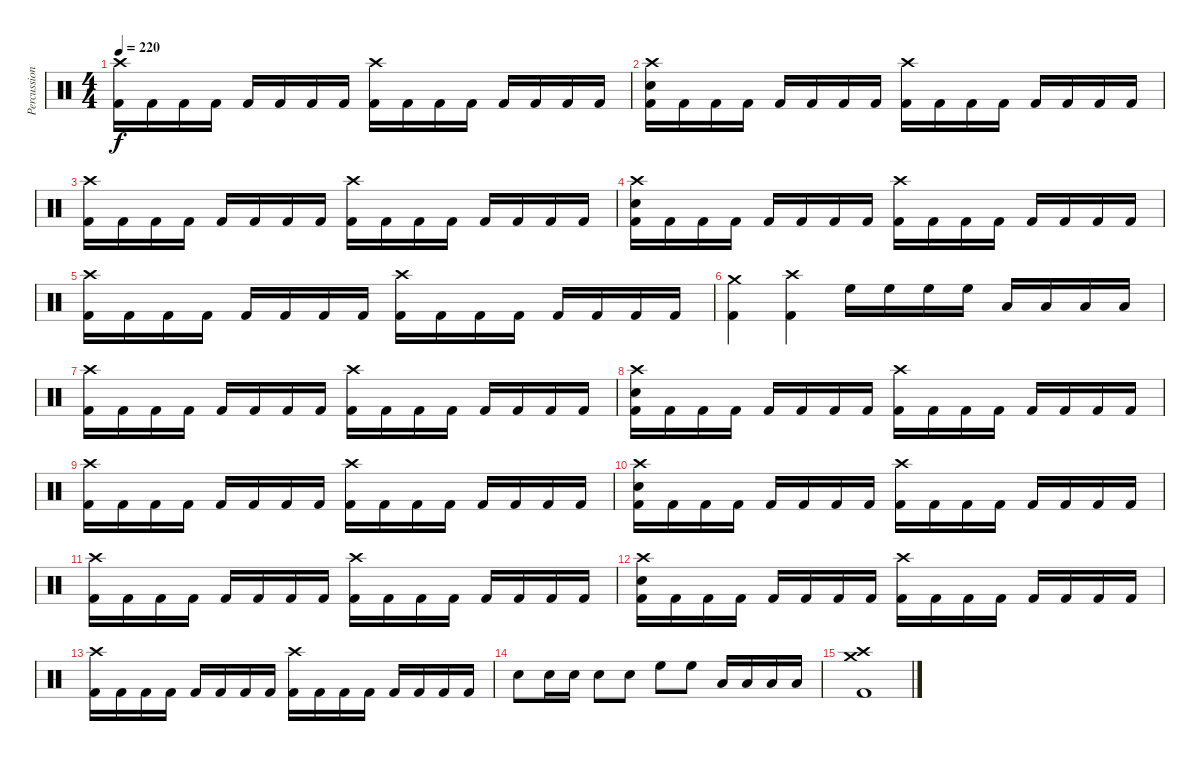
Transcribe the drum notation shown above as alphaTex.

\track ("Percussion" "Percussion") {instrument percussion}
\staff {score}
\articulation defaults
\ts (4 4)
\tempo 220
\clef neutral
\ks c
("Crash high (hit)" "Kick (hit) 2").16{dy f} "Kick (hit) 2".16 "Kick (hit) 2".16 "Kick (hit) 2".16 "Kick (hit) 2".16 "Kick (hit) 2".16 "Kick (hit) 2".16 "Kick (hit) 2".16 ("Crash high (hit)" "Kick (hit) 2").16 "Kick (hit) 2".16 "Kick (hit) 2".16 "Kick (hit) 2".16 "Kick (hit) 2".16 "Kick (hit) 2".16 "Kick (hit) 2".16 "Kick (hit) 2".16 |
("Crash high (hit)" "Snare (hit) 2" "Kick (hit) 2").16 "Kick (hit) 2".16 "Kick (hit) 2".16 "Kick (hit) 2".16 "Kick (hit) 2".16 "Kick (hit) 2".16 "Kick (hit) 2".16 "Kick (hit) 2".16 ("Crash high (hit)" "Kick (hit) 2").16 "Kick (hit) 2".16 "Kick (hit) 2".16 "Kick (hit) 2".16 "Kick (hit) 2".16 "Kick (hit) 2".16 "Kick (hit) 2".16 "Kick (hit) 2".16 |
("Crash high (hit)" "Kick (hit) 2").16 "Kick (hit) 2".16 "Kick (hit) 2".16 "Kick (hit) 2".16 "Kick (hit) 2".16 "Kick (hit) 2".16 "Kick (hit) 2".16 "Kick (hit) 2".16 ("Crash high (hit)" "Kick (hit) 2").16 "Kick (hit) 2".16 "Kick (hit) 2".16 "Kick (hit) 2".16 "Kick (hit) 2".16 "Kick (hit) 2".16 "Kick (hit) 2".16 "Kick (hit) 2".16 |
("Crash high (hit)" "Snare (hit) 2" "Kick (hit) 2").16 "Kick (hit) 2".16 "Kick (hit) 2".16 "Kick (hit) 2".16 "Kick (hit) 2".16 "Kick (hit) 2".16 "Kick (hit) 2".16 "Kick (hit) 2".16 ("Crash high (hit)" "Kick (hit) 2").16 "Kick (hit) 2".16 "Kick (hit) 2".16 "Kick (hit) 2".16 "Kick (hit) 2".16 "Kick (hit) 2".16 "Kick (hit) 2".16 "Kick (hit) 2".16 |
("Crash high (hit)" "Kick (hit) 2").16 "Kick (hit) 2".16 "Kick (hit) 2".16 "Kick (hit) 2".16 "Kick (hit) 2".16 "Kick (hit) 2".16 "Kick (hit) 2".16 "Kick (hit) 2".16 ("Crash high (hit)" "Kick (hit) 2").16 "Kick (hit) 2".16 "Kick (hit) 2".16 "Kick (hit) 2".16 "Kick (hit) 2".16 "Kick (hit) 2".16 "Kick (hit) 2".16 "Kick (hit) 2".16 |
("Crash medium (hit)" "Kick (hit) 2").4 ("Crash high (hit)" "Kick (hit) 2").4 "High Floor Tom (hit)".16 "High Floor Tom (hit)".16 "High Floor Tom (hit)".16 "High Floor Tom (hit)".16 "Low Floor Tom (hit)".16 "Low Floor Tom (hit)".16 "Low Floor Tom (hit)".16 "Low Floor Tom (hit)".16 |
("Crash high (hit)" "Kick (hit) 2").16 "Kick (hit) 2".16 "Kick (hit) 2".16 "Kick (hit) 2".16 "Kick (hit) 2".16 "Kick (hit) 2".16 "Kick (hit) 2".16 "Kick (hit) 2".16 ("Crash high (hit)" "Kick (hit) 2").16 "Kick (hit) 2".16 "Kick (hit) 2".16 "Kick (hit) 2".16 "Kick (hit) 2".16 "Kick (hit) 2".16 "Kick (hit) 2".16 "Kick (hit) 2".16 |
("Crash high (hit)" "Snare (hit) 2" "Kick (hit) 2").16 "Kick (hit) 2".16 "Kick (hit) 2".16 "Kick (hit) 2".16 "Kick (hit) 2".16 "Kick (hit) 2".16 "Kick (hit) 2".16 "Kick (hit) 2".16 ("Crash high (hit)" "Kick (hit) 2").16 "Kick (hit) 2".16 "Kick (hit) 2".16 "Kick (hit) 2".16 "Kick (hit) 2".16 "Kick (hit) 2".16 "Kick (hit) 2".16 "Kick (hit) 2".16 |
("Crash high (hit)" "Kick (hit) 2").16 "Kick (hit) 2".16 "Kick (hit) 2".16 "Kick (hit) 2".16 "Kick (hit) 2".16 "Kick (hit) 2".16 "Kick (hit) 2".16 "Kick (hit) 2".16 ("Crash high (hit)" "Kick (hit) 2").16 "Kick (hit) 2".16 "Kick (hit) 2".16 "Kick (hit) 2".16 "Kick (hit) 2".16 "Kick (hit) 2".16 "Kick (hit) 2".16 "Kick (hit) 2".16 |
("Crash high (hit)" "Snare (hit) 2" "Kick (hit) 2").16 "Kick (hit) 2".16 "Kick (hit) 2".16 "Kick (hit) 2".16 "Kick (hit) 2".16 "Kick (hit) 2".16 "Kick (hit) 2".16 "Kick (hit) 2".16 ("Crash high (hit)" "Kick (hit) 2").16 "Kick (hit) 2".16 "Kick (hit) 2".16 "Kick (hit) 2".16 "Kick (hit) 2".16 "Kick (hit) 2".16 "Kick (hit) 2".16 "Kick (hit) 2".16 |
("Crash high (hit)" "Kick (hit) 2").16 "Kick (hit) 2".16 "Kick (hit) 2".16 "Kick (hit) 2".16 "Kick (hit) 2".16 "Kick (hit) 2".16 "Kick (hit) 2".16 "Kick (hit) 2".16 ("Crash high (hit)" "Kick (hit) 2").16 "Kick (hit) 2".16 "Kick (hit) 2".16 "Kick (hit) 2".16 "Kick (hit) 2".16 "Kick (hit) 2".16 "Kick (hit) 2".16 "Kick (hit) 2".16 |
("Crash high (hit)" "Snare (hit) 2" "Kick (hit) 2").16 "Kick (hit) 2".16 "Kick (hit) 2".16 "Kick (hit) 2".16 "Kick (hit) 2".16 "Kick (hit) 2".16 "Kick (hit) 2".16 "Kick (hit) 2".16 ("Crash high (hit)" "Kick (hit) 2").16 "Kick (hit) 2".16 "Kick (hit) 2".16 "Kick (hit) 2".16 "Kick (hit) 2".16 "Kick (hit) 2".16 "Kick (hit) 2".16 "Kick (hit) 2".16 |
("Crash high (hit)" "Kick (hit) 2").16 "Kick (hit) 2".16 "Kick (hit) 2".16 "Kick (hit) 2".16 "Kick (hit) 2".16 "Kick (hit) 2".16 "Kick (hit) 2".16 "Kick (hit) 2".16 ("Crash high (hit)" "Kick (hit) 2").16 "Kick (hit) 2".16 "Kick (hit) 2".16 "Kick (hit) 2".16 "Kick (hit) 2".16 "Kick (hit) 2".16 "Kick (hit) 2".16 "Kick (hit) 2".16 |
"Snare (hit) 2".8 "Snare (hit) 2".16 "Snare (hit) 2".16 "Snare (hit) 2".8 "Snare (hit) 2".8 "High Floor Tom (hit)".8 "High Floor Tom (hit)".8 "Low Floor Tom (hit)".16 "Low Floor Tom (hit)".16 "Low Floor Tom (hit)".16 "Low Floor Tom (hit)".16 |
("Crash high (hit)" "Crash medium (hit)" "Kick (hit) 2").1
